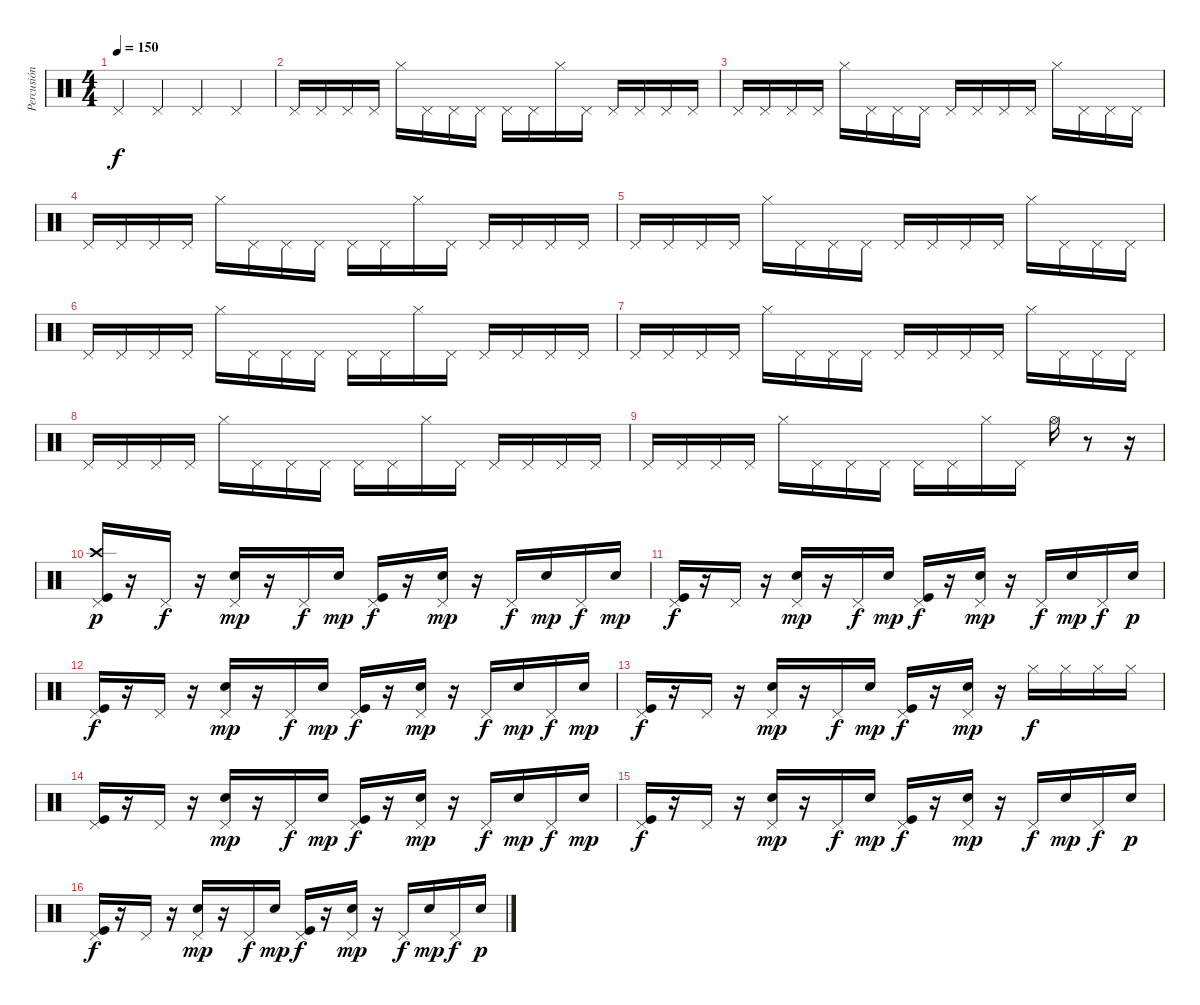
\track ("Percusión" "Percusión") {instrument percussion}
\staff {score}
\articulation defaults
\ts (4 4)
\tempo 150
\clef neutral
\ks c "Pedal Hi-Hat (hit)".4{dy f} "Pedal Hi-Hat (hit)".4 "Pedal Hi-Hat (hit)".4 "Pedal Hi-Hat (hit)".4
|
"Pedal Hi-Hat (hit)".16 "Pedal Hi-Hat (hit)".16 "Pedal Hi-Hat (hit)".16 "Pedal Hi-Hat (hit)".16 "Hi-Hat (closed)".16 "Pedal Hi-Hat (hit)".16 "Pedal Hi-Hat (hit)".16 "Pedal Hi-Hat (hit)".16 "Pedal Hi-Hat (hit)".16 "Pedal Hi-Hat (hit)".16 "Hi-Hat (closed)".16 "Pedal Hi-Hat (hit)".16 "Pedal Hi-Hat (hit)".16 "Pedal Hi-Hat (hit)".16 "Pedal Hi-Hat (hit)".16 "Pedal Hi-Hat (hit)".16 |
"Pedal Hi-Hat (hit)".16 "Pedal Hi-Hat (hit)".16 "Pedal Hi-Hat (hit)".16 "Pedal Hi-Hat (hit)".16 "Hi-Hat (closed)".16 "Pedal Hi-Hat (hit)".16 "Pedal Hi-Hat (hit)".16 "Pedal Hi-Hat (hit)".16 "Pedal Hi-Hat (hit)".16 "Pedal Hi-Hat (hit)".16 "Pedal Hi-Hat (hit)".16 "Pedal Hi-Hat (hit)".16 "Hi-Hat (closed)".16 "Pedal Hi-Hat (hit)".16 "Pedal Hi-Hat (hit)".16 "Pedal Hi-Hat (hit)".16 |
"Pedal Hi-Hat (hit)".16 "Pedal Hi-Hat (hit)".16 "Pedal Hi-Hat (hit)".16 "Pedal Hi-Hat (hit)".16 "Hi-Hat (closed)".16 "Pedal Hi-Hat (hit)".16 "Pedal Hi-Hat (hit)".16 "Pedal Hi-Hat (hit)".16 "Pedal Hi-Hat (hit)".16 "Pedal Hi-Hat (hit)".16 "Hi-Hat (closed)".16 "Pedal Hi-Hat (hit)".16 "Pedal Hi-Hat (hit)".16 "Pedal Hi-Hat (hit)".16 "Pedal Hi-Hat (hit)".16 "Pedal Hi-Hat (hit)".16 |
"Pedal Hi-Hat (hit)".16 "Pedal Hi-Hat (hit)".16 "Pedal Hi-Hat (hit)".16 "Pedal Hi-Hat (hit)".16 "Hi-Hat (closed)".16 "Pedal Hi-Hat (hit)".16 "Pedal Hi-Hat (hit)".16 "Pedal Hi-Hat (hit)".16 "Pedal Hi-Hat (hit)".16 "Pedal Hi-Hat (hit)".16 "Pedal Hi-Hat (hit)".16 "Pedal Hi-Hat (hit)".16 "Hi-Hat (closed)".16 "Pedal Hi-Hat (hit)".16 "Pedal Hi-Hat (hit)".16 "Pedal Hi-Hat (hit)".16 |
"Pedal Hi-Hat (hit)".16 "Pedal Hi-Hat (hit)".16 "Pedal Hi-Hat (hit)".16 "Pedal Hi-Hat (hit)".16 "Hi-Hat (closed)".16 "Pedal Hi-Hat (hit)".16 "Pedal Hi-Hat (hit)".16 "Pedal Hi-Hat (hit)".16 "Pedal Hi-Hat (hit)".16 "Pedal Hi-Hat (hit)".16 "Hi-Hat (closed)".16 "Pedal Hi-Hat (hit)".16 "Pedal Hi-Hat (hit)".16 "Pedal Hi-Hat (hit)".16 "Pedal Hi-Hat (hit)".16 "Pedal Hi-Hat (hit)".16 |
"Pedal Hi-Hat (hit)".16 "Pedal Hi-Hat (hit)".16 "Pedal Hi-Hat (hit)".16 "Pedal Hi-Hat (hit)".16 "Hi-Hat (closed)".16 "Pedal Hi-Hat (hit)".16 "Pedal Hi-Hat (hit)".16 "Pedal Hi-Hat (hit)".16 "Pedal Hi-Hat (hit)".16 "Pedal Hi-Hat (hit)".16 "Pedal Hi-Hat (hit)".16 "Pedal Hi-Hat (hit)".16 "Hi-Hat (closed)".16 "Pedal Hi-Hat (hit)".16 "Pedal Hi-Hat (hit)".16 "Pedal Hi-Hat (hit)".16 |
"Pedal Hi-Hat (hit)".16 "Pedal Hi-Hat (hit)".16 "Pedal Hi-Hat (hit)".16 "Pedal Hi-Hat (hit)".16 "Hi-Hat (closed)".16 "Pedal Hi-Hat (hit)".16 "Pedal Hi-Hat (hit)".16 "Pedal Hi-Hat (hit)".16 "Pedal Hi-Hat (hit)".16 "Pedal Hi-Hat (hit)".16 "Hi-Hat (closed)".16 "Pedal Hi-Hat (hit)".16 "Pedal Hi-Hat (hit)".16 "Pedal Hi-Hat (hit)".16 "Pedal Hi-Hat (hit)".16 "Pedal Hi-Hat (hit)".16 |
"Pedal Hi-Hat (hit)".16 "Pedal Hi-Hat (hit)".16 "Pedal Hi-Hat (hit)".16 "Pedal Hi-Hat (hit)".16 "Hi-Hat (closed)".16 "Pedal Hi-Hat (hit)".16 "Pedal Hi-Hat (hit)".16 "Pedal Hi-Hat (hit)".16 "Pedal Hi-Hat (hit)".16 "Pedal Hi-Hat (hit)".16 "Hi-Hat (closed)".16 "Pedal Hi-Hat (hit)".16 "Hi-Hat (open)".16 r.8 r.16 |
("Pedal Hi-Hat (hit)" "Crash high (hit)" "Kick (hit)").16{dy p} r.16 "Pedal Hi-Hat (hit)".16{dy f} r.16 ("Pedal Hi-Hat (hit)" "Electric Snare (hit)").16{dy mp} r.16 "Pedal Hi-Hat (hit)".16{dy f} "Electric Snare (hit)".16{dy mp} ("Pedal Hi-Hat (hit)" "Kick (hit)").16{dy f} r.16 ("Pedal Hi-Hat (hit)" "Electric Snare (hit)").16{dy mp} r.16 "Pedal Hi-Hat (hit)".16{dy f} "Electric Snare (hit)".16{dy mp} "Pedal Hi-Hat (hit)".16{dy f} "Electric Snare (hit)".16{dy mp} |
("Pedal Hi-Hat (hit)" "Kick (hit)").16{dy f} r.16 "Pedal Hi-Hat (hit)".16 r.16 ("Pedal Hi-Hat (hit)" "Electric Snare (hit)").16{dy mp} r.16 "Pedal Hi-Hat (hit)".16{dy f} "Electric Snare (hit)".16{dy mp} ("Pedal Hi-Hat (hit)" "Kick (hit)").16{dy f} r.16 ("Pedal Hi-Hat (hit)" "Electric Snare (hit)").16{dy mp} r.16 "Pedal Hi-Hat (hit)".16{dy f} "Electric Snare (hit)".16{dy mp} "Pedal Hi-Hat (hit)".16{dy f} "Electric Snare (hit)".16{dy p} |
("Pedal Hi-Hat (hit)" "Kick (hit)").16{dy f} r.16 "Pedal Hi-Hat (hit)".16 r.16 ("Pedal Hi-Hat (hit)" "Electric Snare (hit)").16{dy mp} r.16 "Pedal Hi-Hat (hit)".16{dy f} "Electric Snare (hit)".16{dy mp} ("Pedal Hi-Hat (hit)" "Kick (hit)").16{dy f} r.16 ("Pedal Hi-Hat (hit)" "Electric Snare (hit)").16{dy mp} r.16 "Pedal Hi-Hat (hit)".16{dy f} "Electric Snare (hit)".16{dy mp} "Pedal Hi-Hat (hit)".16{dy f} "Electric Snare (hit)".16{dy mp} |
("Pedal Hi-Hat (hit)" "Kick (hit)").16{dy f} r.16 "Pedal Hi-Hat (hit)".16 r.16 ("Pedal Hi-Hat (hit)" "Electric Snare (hit)").16{dy mp} r.16 "Pedal Hi-Hat (hit)".16{dy f} "Electric Snare (hit)".16{dy mp} ("Pedal Hi-Hat (hit)" "Kick (hit)").16{dy f} r.16 ("Pedal Hi-Hat (hit)" "Electric Snare (hit)").16{dy mp} r.16 "Hi-Hat (closed)".16{dy f} "Hi-Hat (closed)".16 "Hi-Hat (closed)".16 "Hi-Hat (closed)".16 |
("Pedal Hi-Hat (hit)" "Kick (hit)").16 r.16 "Pedal Hi-Hat (hit)".16 r.16 ("Pedal Hi-Hat (hit)" "Electric Snare (hit)").16{dy mp} r.16 "Pedal Hi-Hat (hit)".16{dy f} "Electric Snare (hit)".16{dy mp} ("Pedal Hi-Hat (hit)" "Kick (hit)").16{dy f} r.16 ("Pedal Hi-Hat (hit)" "Electric Snare (hit)").16{dy mp} r.16 "Pedal Hi-Hat (hit)".16{dy f} "Electric Snare (hit)".16{dy mp} "Pedal Hi-Hat (hit)".16{dy f} "Electric Snare (hit)".16{dy mp} |
("Pedal Hi-Hat (hit)" "Kick (hit)").16{dy f} r.16 "Pedal Hi-Hat (hit)".16 r.16 ("Pedal Hi-Hat (hit)" "Electric Snare (hit)").16{dy mp} r.16 "Pedal Hi-Hat (hit)".16{dy f} "Electric Snare (hit)".16{dy mp} ("Pedal Hi-Hat (hit)" "Kick (hit)").16{dy f} r.16 ("Pedal Hi-Hat (hit)" "Electric Snare (hit)").16{dy mp} r.16 "Pedal Hi-Hat (hit)".16{dy f} "Electric Snare (hit)".16{dy mp} "Pedal Hi-Hat (hit)".16{dy f} "Electric Snare (hit)".16{dy p} |
("Pedal Hi-Hat (hit)" "Kick (hit)").16{dy f} r.16 "Pedal Hi-Hat (hit)".16 r.16 ("Pedal Hi-Hat (hit)" "Electric Snare (hit)").16{dy mp} r.16 "Pedal Hi-Hat (hit)".16{dy f} "Electric Snare (hit)".16{dy mp} ("Pedal Hi-Hat (hit)" "Kick (hit)").16{dy f} r.16 ("Pedal Hi-Hat (hit)" "Electric Snare (hit)").16{dy mp} r.16 "Pedal Hi-Hat (hit)".16{dy f} "Electric Snare (hit)".16{dy mp} "Pedal Hi-Hat (hit)".16{dy f} "Electric Snare (hit)".16{dy p}
